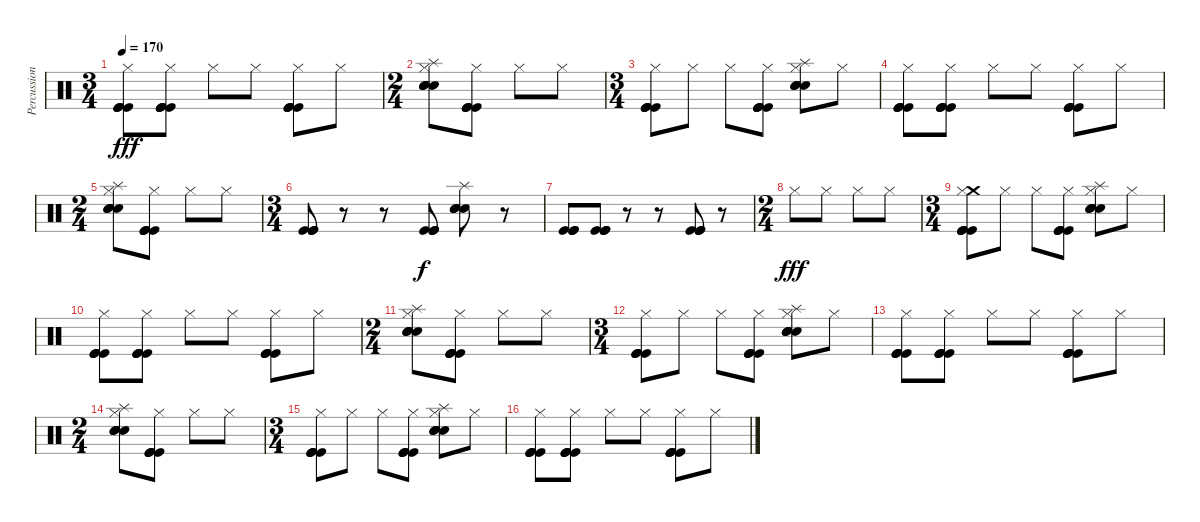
\track ("Percussion" "Percussion") {instrument percussion}
\staff {score}
\articulation defaults
\ts (3 4)
\tempo 170
\clef neutral
\ks c
("Hi-Hat (closed)" "Kick (hit)" "Kick (hit)" "Kick (hit)" "Kick (hit)").8{dy fff} ("Hi-Hat (closed)" "Kick (hit)" "Kick (hit)" "Kick (hit)" "Kick (hit)").8 "Hi-Hat (closed)".8 "Hi-Hat (closed)".8 ("Hi-Hat (closed)" "Kick (hit)" "Kick (hit)" "Kick (hit)" "Kick (hit)").8 "Hi-Hat (closed)".8 |
\ts (2 4)
("Splash (hit)" "Hi-Hat (closed)" "Hand Clap (hit)" "Hand Clap (hit)" "Hand Clap (hit)" "Hand Clap (hit)").8 ("Hi-Hat (closed)" "Kick (hit)" "Kick (hit)" "Kick (hit)" "Kick (hit)").8 "Hi-Hat (closed)".8 "Hi-Hat (closed)".8 |
\ts (3 4)
("Hi-Hat (closed)" "Kick (hit)" "Kick (hit)" "Kick (hit)" "Kick (hit)").8 "Hi-Hat (closed)".8 "Hi-Hat (closed)".8 ("Hi-Hat (closed)" "Kick (hit)" "Kick (hit)" "Kick (hit)" "Kick (hit)").8 ("Splash (hit)" "Hi-Hat (closed)" "Hand Clap (hit)" "Hand Clap (hit)" "Hand Clap (hit)" "Hand Clap (hit)").8 "Hi-Hat (closed)".8 |
("Hi-Hat (closed)" "Kick (hit)" "Kick (hit)" "Kick (hit)" "Kick (hit)").8 ("Hi-Hat (closed)" "Kick (hit)" "Kick (hit)" "Kick (hit)" "Kick (hit)").8 "Hi-Hat (closed)".8 "Hi-Hat (closed)".8 ("Hi-Hat (closed)" "Kick (hit)" "Kick (hit)" "Kick (hit)" "Kick (hit)").8 "Hi-Hat (closed)".8 |
\ts (2 4)
("Splash (hit)" "Hi-Hat (closed)" "Hand Clap (hit)" "Hand Clap (hit)" "Hand Clap (hit)" "Hand Clap (hit)").8 ("Hi-Hat (closed)" "Kick (hit)" "Kick (hit)" "Kick (hit)" "Kick (hit)").8 "Hi-Hat (closed)".8 "Hi-Hat (closed)".8 |
\ts (3 4)
("Kick (hit)" "Kick (hit)" "Kick (hit)" "Kick (hit)").8 r.8 r.8 ("Kick (hit)" "Kick (hit)" "Kick (hit)" "Kick (hit)").8{dy f} ("Splash (hit)" "Hand Clap (hit)" "Hand Clap (hit)" "Hand Clap (hit)" "Hand Clap (hit)").8 r.8 |
("Kick (hit)" "Kick (hit)" "Kick (hit)" "Kick (hit)").8 ("Kick (hit)" "Kick (hit)" "Kick (hit)" "Kick (hit)").8 r.8 r.8 ("Kick (hit)" "Kick (hit)" "Kick (hit)" "Kick (hit)").8 r.8 |
\ts (2 4)
"Hi-Hat (closed)".8{dy fff} "Hi-Hat (closed)".8 "Hi-Hat (closed)".8 "Hi-Hat (closed)".8 |
\ts (3 4)
("Crash medium (hit)" "Hi-Hat (closed)" "Kick (hit)" "Kick (hit)" "Kick (hit)" "Kick (hit)").8 "Hi-Hat (closed)".8 "Hi-Hat (closed)".8 ("Hi-Hat (closed)" "Kick (hit)" "Kick (hit)" "Kick (hit)" "Kick (hit)").8 ("Splash (hit)" "Hi-Hat (closed)" "Hand Clap (hit)" "Hand Clap (hit)" "Hand Clap (hit)" "Hand Clap (hit)").8 "Hi-Hat (closed)".8 |
("Hi-Hat (closed)" "Kick (hit)" "Kick (hit)" "Kick (hit)" "Kick (hit)").8 ("Hi-Hat (closed)" "Kick (hit)" "Kick (hit)" "Kick (hit)" "Kick (hit)").8 "Hi-Hat (closed)".8 "Hi-Hat (closed)".8 ("Hi-Hat (closed)" "Kick (hit)" "Kick (hit)" "Kick (hit)" "Kick (hit)").8 "Hi-Hat (closed)".8 |
\ts (2 4)
("Splash (hit)" "Hi-Hat (closed)" "Hand Clap (hit)" "Hand Clap (hit)" "Hand Clap (hit)" "Hand Clap (hit)").8 ("Hi-Hat (closed)" "Kick (hit)" "Kick (hit)" "Kick (hit)" "Kick (hit)").8 "Hi-Hat (closed)".8 "Hi-Hat (closed)".8 |
\ts (3 4)
("Hi-Hat (closed)" "Kick (hit)" "Kick (hit)" "Kick (hit)" "Kick (hit)").8 "Hi-Hat (closed)".8 "Hi-Hat (closed)".8 ("Hi-Hat (closed)" "Kick (hit)" "Kick (hit)" "Kick (hit)" "Kick (hit)").8 ("Splash (hit)" "Hi-Hat (closed)" "Hand Clap (hit)" "Hand Clap (hit)" "Hand Clap (hit)" "Hand Clap (hit)").8 "Hi-Hat (closed)".8 |
("Hi-Hat (closed)" "Kick (hit)" "Kick (hit)" "Kick (hit)" "Kick (hit)").8 ("Hi-Hat (closed)" "Kick (hit)" "Kick (hit)" "Kick (hit)" "Kick (hit)").8 "Hi-Hat (closed)".8 "Hi-Hat (closed)".8 ("Hi-Hat (closed)" "Kick (hit)" "Kick (hit)" "Kick (hit)" "Kick (hit)").8 "Hi-Hat (closed)".8 |
\ts (2 4)
("Splash (hit)" "Hi-Hat (closed)" "Hand Clap (hit)" "Hand Clap (hit)" "Hand Clap (hit)" "Hand Clap (hit)").8 ("Hi-Hat (closed)" "Kick (hit)" "Kick (hit)" "Kick (hit)" "Kick (hit)").8 "Hi-Hat (closed)".8 "Hi-Hat (closed)".8 |
\ts (3 4)
("Hi-Hat (closed)" "Kick (hit)" "Kick (hit)" "Kick (hit)" "Kick (hit)").8 "Hi-Hat (closed)".8 "Hi-Hat (closed)".8 ("Hi-Hat (closed)" "Kick (hit)" "Kick (hit)" "Kick (hit)" "Kick (hit)").8 ("Splash (hit)" "Hi-Hat (closed)" "Hand Clap (hit)" "Hand Clap (hit)" "Hand Clap (hit)" "Hand Clap (hit)").8 "Hi-Hat (closed)".8 |
("Hi-Hat (closed)" "Kick (hit)" "Kick (hit)" "Kick (hit)" "Kick (hit)").8 ("Hi-Hat (closed)" "Kick (hit)" "Kick (hit)" "Kick (hit)" "Kick (hit)").8 "Hi-Hat (closed)".8 "Hi-Hat (closed)".8 ("Hi-Hat (closed)" "Kick (hit)" "Kick (hit)" "Kick (hit)" "Kick (hit)").8 "Hi-Hat (closed)".8
